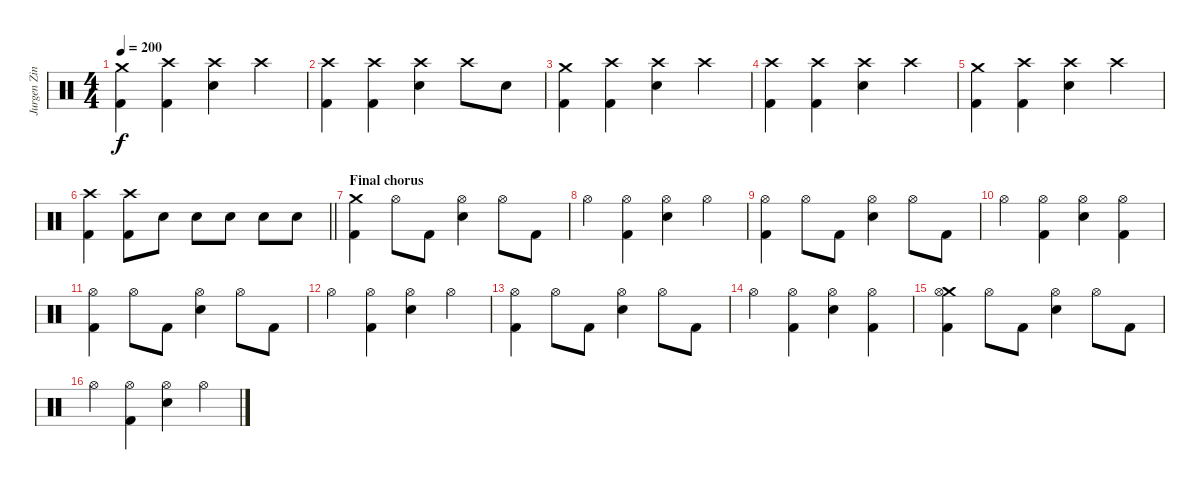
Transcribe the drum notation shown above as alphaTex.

\track ("Jurgen Zink" "Jurgen Zin") {instrument percussion}
\staff {score}
\articulation defaults
\ts (4 4)
\tempo 200
\clef neutral
\ks c
("Crash medium (hit)" "Kick (hit) 2").4{dy f} ("Crash high (hit)" "Kick (hit) 2").4 ("Crash high (hit)" "Electric Snare (hit)").4 "Crash high (hit)".4 |
("Crash high (hit)" "Kick (hit) 2").4 ("Crash high (hit)" "Kick (hit) 2").4 ("Crash high (hit)" "Electric Snare (hit)").4 "Crash high (hit)".8 "Electric Snare (hit)".8 |
("Crash medium (hit)" "Kick (hit) 2").4 ("Crash high (hit)" "Kick (hit) 2").4 ("Crash high (hit)" "Electric Snare (hit)").4 "Crash high (hit)".4 |
("Crash high (hit)" "Kick (hit) 2").4 ("Crash high (hit)" "Kick (hit) 2").4 ("Crash high (hit)" "Electric Snare (hit)").4 "Crash high (hit)".4 |
("Crash medium (hit)" "Kick (hit) 2").4 ("Crash high (hit)" "Kick (hit) 2").4 ("Crash high (hit)" "Electric Snare (hit)").4 "Crash high (hit)".4 |
\barLineRight lightlight
("Crash high (hit)" "Kick (hit) 2").4 ("Crash high (hit)" "Kick (hit) 2").8 "Electric Snare (hit)".8 "Electric Snare (hit)".8 "Electric Snare (hit)".8 "Electric Snare (hit)".8 "Electric Snare (hit)".8 |
\section ("" "Final chorus")
("Crash medium (hit)" "Kick (hit) 2").4 "Hi-Hat (open)".8 "Kick (hit) 2".8 ("Hi-Hat (open)" "Electric Snare (hit)").4 "Hi-Hat (open)".8 "Kick (hit) 2".8 |
"Hi-Hat (open)".4 ("Hi-Hat (open)" "Kick (hit) 2").4 ("Hi-Hat (open)" "Electric Snare (hit)").4 "Hi-Hat (open)".4 |
("Hi-Hat (open)" "Kick (hit) 2").4 "Hi-Hat (open)".8 "Kick (hit) 2".8 ("Hi-Hat (open)" "Electric Snare (hit)").4 "Hi-Hat (open)".8 "Kick (hit) 2".8 |
"Hi-Hat (open)".4 ("Hi-Hat (open)" "Kick (hit) 2").4 ("Hi-Hat (open)" "Electric Snare (hit)").4 ("Hi-Hat (open)" "Kick (hit) 2").4 |
("Hi-Hat (open)" "Kick (hit) 2").4 "Hi-Hat (open)".8 "Kick (hit) 2".8 ("Hi-Hat (open)" "Electric Snare (hit)").4 "Hi-Hat (open)".8 "Kick (hit) 2".8 |
"Hi-Hat (open)".4 ("Hi-Hat (open)" "Kick (hit) 2").4 ("Hi-Hat (open)" "Electric Snare (hit)").4 "Hi-Hat (open)".4 |
("Hi-Hat (open)" "Kick (hit) 2").4 "Hi-Hat (open)".8 "Kick (hit) 2".8 ("Hi-Hat (open)" "Electric Snare (hit)").4 "Hi-Hat (open)".8 "Kick (hit) 2".8 |
"Hi-Hat (open)".4 ("Hi-Hat (open)" "Kick (hit) 2").4 ("Hi-Hat (open)" "Electric Snare (hit)").4 ("Hi-Hat (open)" "Kick (hit) 2").4 |
("Crash medium (hit)" "Hi-Hat (open)" "Kick (hit) 2").4 "Hi-Hat (open)".8 "Kick (hit) 2".8 ("Hi-Hat (open)" "Electric Snare (hit)").4 "Hi-Hat (open)".8 "Kick (hit) 2".8 |
"Hi-Hat (open)".4 ("Hi-Hat (open)" "Kick (hit) 2").4 ("Hi-Hat (open)" "Electric Snare (hit)").4 "Hi-Hat (open)".4
